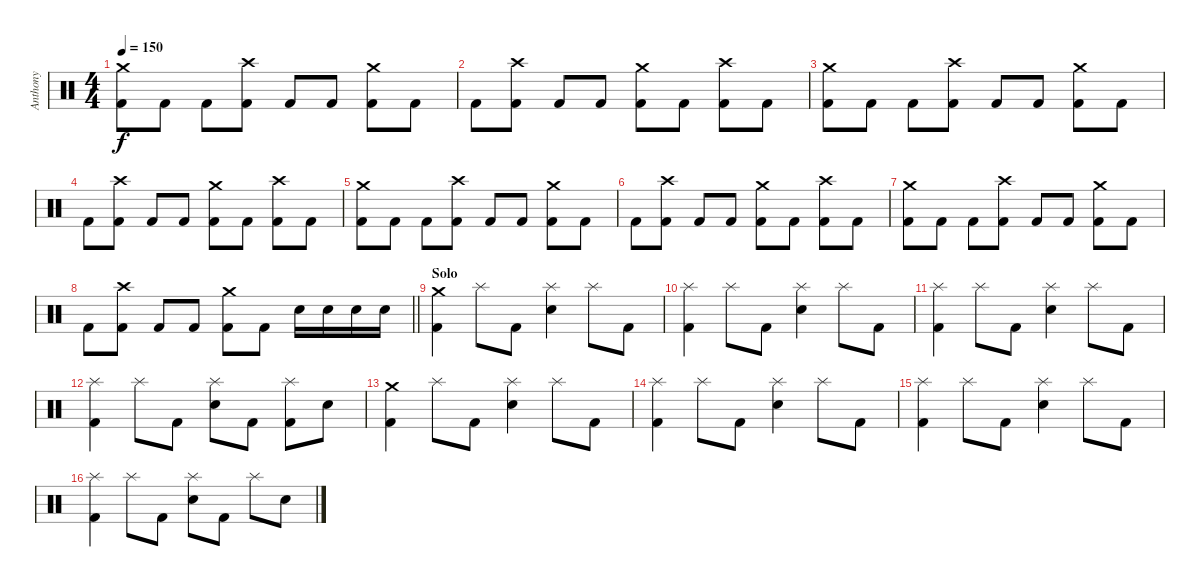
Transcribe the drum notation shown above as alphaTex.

\track ("Anthony" "Anthony") {instrument percussion}
\staff {score}
\articulation defaults
\ts (4 4)
\tempo 150
\clef neutral
\ks c
("Crash medium (hit)" "Kick (hit) 2").8{dy f} "Kick (hit) 2".8 "Kick (hit) 2".8 ("Crash high (hit)" "Kick (hit) 2").8 "Kick (hit) 2".8 "Kick (hit) 2".8 ("Crash medium (hit)" "Kick (hit) 2").8 "Kick (hit) 2".8 |
"Kick (hit) 2".8 ("Crash high (hit)" "Kick (hit) 2").8 "Kick (hit) 2".8 "Kick (hit) 2".8 ("Crash medium (hit)" "Kick (hit) 2").8 "Kick (hit) 2".8 ("Crash high (hit)" "Kick (hit) 2").8 "Kick (hit) 2".8 |
("Crash medium (hit)" "Kick (hit) 2").8 "Kick (hit) 2".8 "Kick (hit) 2".8 ("Crash high (hit)" "Kick (hit) 2").8 "Kick (hit) 2".8 "Kick (hit) 2".8 ("Crash medium (hit)" "Kick (hit) 2").8 "Kick (hit) 2".8 |
"Kick (hit) 2".8 ("Crash high (hit)" "Kick (hit) 2").8 "Kick (hit) 2".8 "Kick (hit) 2".8 ("Crash medium (hit)" "Kick (hit) 2").8 "Kick (hit) 2".8 ("Crash high (hit)" "Kick (hit) 2").8 "Kick (hit) 2".8 |
("Crash medium (hit)" "Kick (hit) 2").8 "Kick (hit) 2".8 "Kick (hit) 2".8 ("Crash high (hit)" "Kick (hit) 2").8 "Kick (hit) 2".8 "Kick (hit) 2".8 ("Crash medium (hit)" "Kick (hit) 2").8 "Kick (hit) 2".8 |
"Kick (hit) 2".8 ("Crash high (hit)" "Kick (hit) 2").8 "Kick (hit) 2".8 "Kick (hit) 2".8 ("Crash medium (hit)" "Kick (hit) 2").8 "Kick (hit) 2".8 ("Crash high (hit)" "Kick (hit) 2").8 "Kick (hit) 2".8 |
("Crash medium (hit)" "Kick (hit) 2").8 "Kick (hit) 2".8 "Kick (hit) 2".8 ("Crash high (hit)" "Kick (hit) 2").8 "Kick (hit) 2".8 "Kick (hit) 2".8 ("Crash medium (hit)" "Kick (hit) 2").8 "Kick (hit) 2".8 |
\barLineRight lightlight "Kick (hit) 2".8
("Crash high (hit)" "Kick (hit) 2").8 "Kick (hit) 2".8 "Kick (hit) 2".8 ("Crash medium (hit)" "Kick (hit) 2").8 "Kick (hit) 2".8 "Electric Snare (hit)".16 "Electric Snare (hit)".16 "Electric Snare (hit)".16 "Electric Snare (hit)".16 |
\section ("" "Solo")
("Crash medium (hit)" "Kick (hit) 2").4 "Splash (hit)".8 "Kick (hit) 2".8 ("Splash (hit)" "Electric Snare (hit)").4 "Splash (hit)".8 "Kick (hit) 2".8 |
("Splash (hit)" "Kick (hit) 2").4 "Splash (hit)".8 "Kick (hit) 2".8 ("Splash (hit)" "Electric Snare (hit)").4 "Splash (hit)".8 "Kick (hit) 2".8 |
("Splash (hit)" "Kick (hit) 2").4 "Splash (hit)".8 "Kick (hit) 2".8 ("Splash (hit)" "Electric Snare (hit)").4 "Splash (hit)".8 "Kick (hit) 2".8 |
("Splash (hit)" "Kick (hit) 2").4 "Splash (hit)".8 "Kick (hit) 2".8 ("Splash (hit)" "Electric Snare (hit)").8 "Kick (hit) 2".8 ("Splash (hit)" "Kick (hit) 2").8 "Electric Snare (hit)".8 |
("Crash medium (hit)" "Kick (hit) 2").4 "Splash (hit)".8 "Kick (hit) 2".8 ("Splash (hit)" "Electric Snare (hit)").4 "Splash (hit)".8 "Kick (hit) 2".8 |
("Splash (hit)" "Kick (hit) 2").4 "Splash (hit)".8 "Kick (hit) 2".8 ("Splash (hit)" "Electric Snare (hit)").4 "Splash (hit)".8 "Kick (hit) 2".8 |
("Splash (hit)" "Kick (hit) 2").4 "Splash (hit)".8 "Kick (hit) 2".8 ("Splash (hit)" "Electric Snare (hit)").4 "Splash (hit)".8 "Kick (hit) 2".8 |
("Splash (hit)" "Kick (hit) 2").4 "Splash (hit)".8 "Kick (hit) 2".8 ("Splash (hit)" "Electric Snare (hit)").8 "Kick (hit) 2".8 "Splash (hit)".8 "Electric Snare (hit)".8
